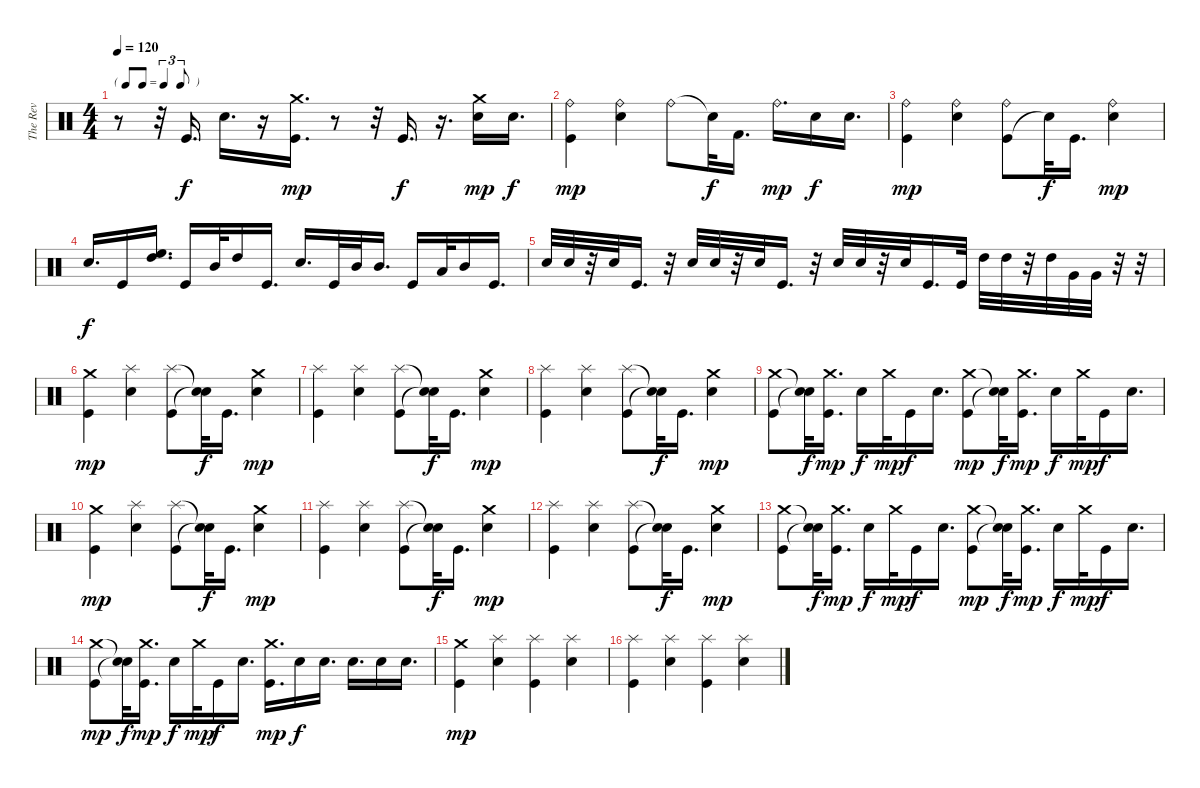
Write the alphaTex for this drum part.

\track ("The Rev" "The Rev") {instrument percussion}
\staff {score}
\articulation defaults
\ts (4 4)
\tf triplet8th
\tempo 120
\clef neutral
\ks c
r.8{dy mp} r.32 "Kick (hit)".16{d dy f} "Electric Snare (hit)".16{d} r.16 ("Crash medium (hit)" "Kick (hit)").16{d dy mp} r.8 r.32 "Kick (hit)".16{d dy f} r.16{d} ("Electric Snare (hit)" "Crash medium (hit)").16{dy mp} "Electric Snare (hit)".16{d dy f} |
("Kick (hit)" "Ride (bell)").4{dy mp} ("Electric Snare (hit)" "Ride (bell)").4 "Ride (bell)".8 "Snare (hit)"{t}.32{dy f} "Kick (hit) 2".16{d} "Ride (bell)".16{d dy mp} "Electric Snare (hit)".16{dy f} "Electric Snare (hit)".16{d} |
("Kick (hit)" "Ride (bell)").4{dy mp} ("Electric Snare (hit)" "Ride (bell)").4 ("Kick (hit)" "Ride (bell)").8 "Snare (hit)"{t}.32{dy f} "Kick (hit)".16{d} ("Electric Snare (hit)" "Ride (bell)").4{dy mp} |
"Electric Snare (hit)".16{d dy f} "Kick (hit)".16 ("High Floor Tom (hit)" "High Tom (hit)").16{d} "Kick (hit)".16 "Mid Tom (hit)".32 "High Tom (hit)".16 "Kick (hit)".16{d} "Electric Snare (hit)".16{d} "Kick (hit)".32 "Mid Tom (hit)".32 "Mid Tom (hit)".16{d} "Kick (hit)".16 "Low Tom (hit)".32 "Mid Tom (hit)".16 "Kick (hit)".16{d} |
"Electric Snare (hit)".32 "Electric Snare (hit)".32 r.32 "Electric Snare (hit)".32 "Kick (hit)".16{d} r.32 "Electric Snare (hit)".32 "Electric Snare (hit)".32 r.32 "Electric Snare (hit)".32 "Kick (hit)".16{d} r.32 "Electric Snare (hit)".32 "Electric Snare (hit)".32 r.32 "Electric Snare (hit)".32 "Kick (hit)".16{d} "Kick (hit)".32 "High Tom (hit)".32 "High Tom (hit)".32 r.32 "High Tom (hit)".32 "Very Low Tom (hit)".32 "Very Low Tom (hit)".32 r.32 r.32 |
("Kick (hit)" "Crash medium (hit)").4{dy mp} ("Electric Snare (hit)" "Splash (hit)").4 ("Kick (hit)" "Splash (hit)").8 ("Snare (hit)"{t} "Snare (hit)"{t}).32{dy f} "Kick (hit)".16{d} ("Electric Snare (hit)" "Crash medium (hit)").4{dy mp} |
("Kick (hit)" "Splash (hit)").4 ("Electric Snare (hit)" "Splash (hit)").4 ("Kick (hit)" "Splash (hit)").8 ("Snare (hit)"{t} "Snare (hit)"{t}).32{dy f} "Kick (hit)".16{d} ("Electric Snare (hit)" "Crash medium (hit)").4{dy mp} |
("Kick (hit)" "Splash (hit)").4 ("Electric Snare (hit)" "Splash (hit)").4 ("Kick (hit)" "Splash (hit)").8 ("Snare (hit)"{t} "Snare (hit)"{t}).32{dy f} "Kick (hit)".16{d} ("Electric Snare (hit)" "Crash medium (hit)").4{dy mp} |
("Crash medium (hit)" "Kick (hit)").8 ("Snare (hit)"{t} "Snare (hit)"{t}).32{dy f} ("Crash medium (hit)" "Kick (hit)").16{d dy mp} "Electric Snare (hit)".16{dy f} "Crash medium (hit)".32{dy mp} "Kick (hit)".16{dy f} "Electric Snare (hit)".16{d} ("Crash medium (hit)" "Kick (hit)").8{dy mp} ("Snare (hit)"{t} "Snare (hit)"{t}).32{dy f} ("Crash medium (hit)" "Kick (hit)").16{d dy mp} "Electric Snare (hit)".16{dy f} "Crash medium (hit)".32{dy mp} "Kick (hit)".16{dy f} "Electric Snare (hit)".16{d} |
("Kick (hit)" "Crash medium (hit)").4{dy mp} ("Electric Snare (hit)" "Splash (hit)").4 ("Kick (hit)" "Splash (hit)").8 ("Snare (hit)"{t} "Snare (hit)"{t}).32{dy f} "Kick (hit)".16{d} ("Electric Snare (hit)" "Crash medium (hit)").4{dy mp} |
("Kick (hit)" "Splash (hit)").4 ("Electric Snare (hit)" "Splash (hit)").4 ("Kick (hit)" "Splash (hit)").8 ("Snare (hit)"{t} "Snare (hit)"{t}).32{dy f} "Kick (hit)".16{d} ("Electric Snare (hit)" "Crash medium (hit)").4{dy mp} |
("Kick (hit)" "Splash (hit)").4 ("Electric Snare (hit)" "Splash (hit)").4 ("Kick (hit)" "Splash (hit)").8 ("Snare (hit)"{t} "Snare (hit)"{t}).32{dy f} "Kick (hit)".16{d} ("Electric Snare (hit)" "Crash medium (hit)").4{dy mp} |
("Crash medium (hit)" "Kick (hit)").8 ("Snare (hit)"{t} "Snare (hit)"{t}).32{dy f} ("Crash medium (hit)" "Kick (hit)").16{d dy mp} "Electric Snare (hit)".16{dy f} "Crash medium (hit)".32{dy mp} "Kick (hit)".16{dy f} "Electric Snare (hit)".16{d} ("Crash medium (hit)" "Kick (hit)").8{dy mp} ("Snare (hit)"{t} "Snare (hit)"{t}).32{dy f} ("Crash medium (hit)" "Kick (hit)").16{d dy mp} "Electric Snare (hit)".16{dy f} "Crash medium (hit)".32{dy mp} "Kick (hit)".16{dy f} "Electric Snare (hit)".16{d} |
("Crash medium (hit)" "Kick (hit)").8{dy mp} ("Snare (hit)"{t} "Snare (hit)"{t}).32{dy f} ("Crash medium (hit)" "Kick (hit)").16{d dy mp} "Electric Snare (hit)".16{dy f} "Crash medium (hit)".32{dy mp} "Kick (hit)".16{dy f} "Electric Snare (hit)".16{d} ("Kick (hit)" "Crash medium (hit)").16{d dy mp} "Electric Snare (hit)".16{dy f} "Electric Snare (hit)".16{d} "Electric Snare (hit)".16{d} "Electric Snare (hit)".16 "Electric Snare (hit)".16{d} |
("Kick (hit)" "Crash medium (hit)").4{dy mp} ("Splash (hit)" "Electric Snare (hit)").4 ("Splash (hit)" "Kick (hit)").4 ("Splash (hit)" "Electric Snare (hit)").4 |
("Kick (hit)" "Splash (hit)").4 ("Splash (hit)" "Electric Snare (hit)").4 ("Splash (hit)" "Kick (hit)").4 ("Splash (hit)" "Electric Snare (hit)").4
